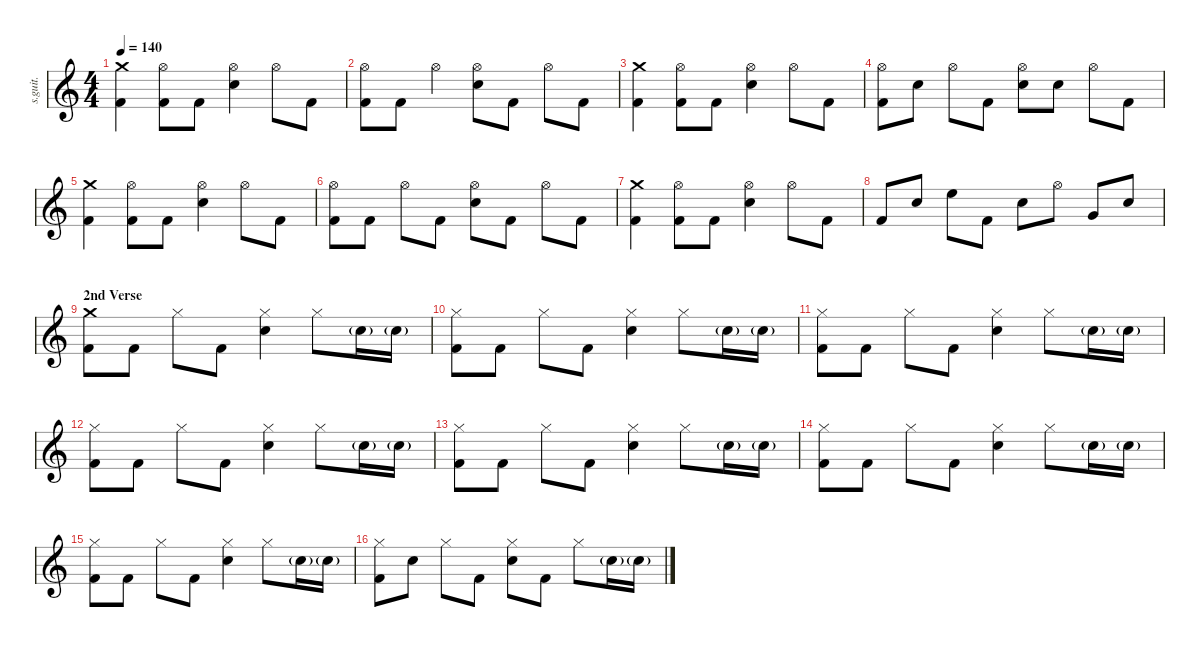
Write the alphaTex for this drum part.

\defaultSystemsLayout 4
\hideDynamics
\bracketExtendMode nobrackets
\track ("Abe Cunningham" "s.guit.") {instrument percussion}
\staff {score}
\articulation defaults
\ts (4 4)
\tempo 140
\clef g2
\ks c
("Crash medium (hit)" "Kick (hit) 2").4{lyrics (0 "") lyrics (1 "") lyrics (2 "") lyrics (3 "") lyrics (4 "") dy fff} ("Hi-Hat (open)" "Kick (hit) 2").8{lyrics (0 "") lyrics (1 "") lyrics (2 "") lyrics (3 "") lyrics (4 "")} "Kick (hit) 2".8{lyrics (0 "") lyrics (1 "") lyrics (2 "") lyrics (3 "") lyrics (4 "")} ("Hi-Hat (open)" "Snare (hit) 2").4{lyrics (0 "") lyrics (1 "") lyrics (2 "") lyrics (3 "") lyrics (4 "")} "Hi-Hat (open)".8{lyrics (0 "") lyrics (1 "") lyrics (2 "") lyrics (3 "") lyrics (4 "")} "Kick (hit) 2".8{lyrics (0 "") lyrics (1 "") lyrics (2 "") lyrics (3 "") lyrics (4 "")} |
("Hi-Hat (open)" "Kick (hit) 2").8{lyrics (0 "") lyrics (1 "") lyrics (2 "") lyrics (3 "") lyrics (4 "")} "Kick (hit) 2".8{lyrics (0 "") lyrics (1 "") lyrics (2 "") lyrics (3 "") lyrics (4 "")} "Hi-Hat (open)".4{lyrics (0 "") lyrics (1 "") lyrics (2 "") lyrics (3 "") lyrics (4 "")} ("Hi-Hat (open)" "Snare (hit) 2").8{lyrics (0 "") lyrics (1 "") lyrics (2 "") lyrics (3 "") lyrics (4 "")} "Kick (hit) 2".8{lyrics (0 "") lyrics (1 "") lyrics (2 "") lyrics (3 "") lyrics (4 "")} "Hi-Hat (open)".8{lyrics (0 "") lyrics (1 "") lyrics (2 "") lyrics (3 "") lyrics (4 "")} "Kick (hit) 2".8{lyrics (0 "") lyrics (1 "") lyrics (2 "") lyrics (3 "") lyrics (4 "")} |
("Crash medium (hit)" "Kick (hit) 2").4{lyrics (0 "") lyrics (1 "") lyrics (2 "") lyrics (3 "") lyrics (4 "")} ("Hi-Hat (open)" "Kick (hit) 2").8{lyrics (0 "") lyrics (1 "") lyrics (2 "") lyrics (3 "") lyrics (4 "")} "Kick (hit) 2".8{lyrics (0 "") lyrics (1 "") lyrics (2 "") lyrics (3 "") lyrics (4 "")} ("Hi-Hat (open)" "Snare (hit) 2").4{lyrics (0 "") lyrics (1 "") lyrics (2 "") lyrics (3 "") lyrics (4 "")} "Hi-Hat (open)".8{lyrics (0 "") lyrics (1 "") lyrics (2 "") lyrics (3 "") lyrics (4 "")} "Kick (hit) 2".8{lyrics (0 "") lyrics (1 "") lyrics (2 "") lyrics (3 "") lyrics (4 "")} |
("Hi-Hat (open)" "Kick (hit) 2").8{lyrics (0 "") lyrics (1 "") lyrics (2 "") lyrics (3 "") lyrics (4 "")} "Snare (hit) 2".8{lyrics (0 "") lyrics (1 "") lyrics (2 "") lyrics (3 "") lyrics (4 "")} "Hi-Hat (open)".8{lyrics (0 "") lyrics (1 "") lyrics (2 "") lyrics (3 "") lyrics (4 "")} "Kick (hit) 2".8{lyrics (0 "") lyrics (1 "") lyrics (2 "") lyrics (3 "") lyrics (4 "")} ("Hi-Hat (open)" "Snare (hit) 2").8{lyrics (0 "") lyrics (1 "") lyrics (2 "") lyrics (3 "") lyrics (4 "")} "Snare (hit) 2".8{lyrics (0 "") lyrics (1 "") lyrics (2 "") lyrics (3 "") lyrics (4 "")} "Hi-Hat (open)".8{lyrics (0 "") lyrics (1 "") lyrics (2 "") lyrics (3 "") lyrics (4 "")} "Kick (hit) 2".8{lyrics (0 "") lyrics (1 "") lyrics (2 "") lyrics (3 "") lyrics (4 "")} |
("Crash medium (hit)" "Kick (hit) 2").4{lyrics (0 "") lyrics (1 "") lyrics (2 "") lyrics (3 "") lyrics (4 "")} ("Hi-Hat (open)" "Kick (hit) 2").8{lyrics (0 "") lyrics (1 "") lyrics (2 "") lyrics (3 "") lyrics (4 "")} "Kick (hit) 2".8{lyrics (0 "") lyrics (1 "") lyrics (2 "") lyrics (3 "") lyrics (4 "")} ("Hi-Hat (open)" "Snare (hit) 2").4{lyrics (0 "") lyrics (1 "") lyrics (2 "") lyrics (3 "") lyrics (4 "")} "Hi-Hat (open)".8{lyrics (0 "") lyrics (1 "") lyrics (2 "") lyrics (3 "") lyrics (4 "")} "Kick (hit) 2".8{lyrics (0 "") lyrics (1 "") lyrics (2 "") lyrics (3 "") lyrics (4 "")} |
("Hi-Hat (open)" "Kick (hit) 2").8{lyrics (0 "") lyrics (1 "") lyrics (2 "") lyrics (3 "") lyrics (4 "")} "Kick (hit) 2".8{lyrics (0 "") lyrics (1 "") lyrics (2 "") lyrics (3 "") lyrics (4 "")} "Hi-Hat (open)".8{lyrics (0 "") lyrics (1 "") lyrics (2 "") lyrics (3 "") lyrics (4 "")} "Kick (hit) 2".8{lyrics (0 "") lyrics (1 "") lyrics (2 "") lyrics (3 "") lyrics (4 "")} ("Hi-Hat (open)" "Snare (hit) 2").8{lyrics (0 "") lyrics (1 "") lyrics (2 "") lyrics (3 "") lyrics (4 "")} "Kick (hit) 2".8{lyrics (0 "") lyrics (1 "") lyrics (2 "") lyrics (3 "") lyrics (4 "")} "Hi-Hat (open)".8{lyrics (0 "") lyrics (1 "") lyrics (2 "") lyrics (3 "") lyrics (4 "")} "Kick (hit) 2".8{lyrics (0 "") lyrics (1 "") lyrics (2 "") lyrics (3 "") lyrics (4 "")} |
("Crash medium (hit)" "Kick (hit) 2").4{lyrics (0 "") lyrics (1 "") lyrics (2 "") lyrics (3 "") lyrics (4 "")} ("Hi-Hat (open)" "Kick (hit) 2").8{lyrics (0 "") lyrics (1 "") lyrics (2 "") lyrics (3 "") lyrics (4 "")} "Kick (hit) 2".8{lyrics (0 "") lyrics (1 "") lyrics (2 "") lyrics (3 "") lyrics (4 "")} ("Hi-Hat (open)" "Snare (hit) 2").4{lyrics (0 "") lyrics (1 "") lyrics (2 "") lyrics (3 "") lyrics (4 "")} "Hi-Hat (open)".8{lyrics (0 "") lyrics (1 "") lyrics (2 "") lyrics (3 "") lyrics (4 "")} "Kick (hit) 2".8{lyrics (0 "") lyrics (1 "") lyrics (2 "") lyrics (3 "") lyrics (4 "")} |
"Kick (hit) 2".8{lyrics (0 "") lyrics (1 "") lyrics (2 "") lyrics (3 "") lyrics (4 "")} "Snare (hit) 2".8{lyrics (0 "") lyrics (1 "") lyrics (2 "") lyrics (3 "") lyrics (4 "")} "High Floor Tom (hit)".8{lyrics (0 "") lyrics (1 "") lyrics (2 "") lyrics (3 "") lyrics (4 "")} "Kick (hit) 2".8{lyrics (0 "") lyrics (1 "") lyrics (2 "") lyrics (3 "") lyrics (4 "")} "Snare (hit) 2".8{lyrics (0 "") lyrics (1 "") lyrics (2 "") lyrics (3 "") lyrics (4 "")} "Hi-Hat (open)".8{lyrics (0 "") lyrics (1 "") lyrics (2 "") lyrics (3 "") lyrics (4 "")} "Very Low Tom (hit)".8{lyrics (0 "") lyrics (1 "") lyrics (2 "") lyrics (3 "") lyrics (4 "")} "Snare (hit) 2".8{lyrics (0 "") lyrics (1 "") lyrics (2 "") lyrics (3 "") lyrics (4 "")} |
\section ("" "2nd Verse")
("Crash medium (hit)" "Kick (hit) 2").8{lyrics (0 "") lyrics (1 "") lyrics (2 "") lyrics (3 "") lyrics (4 "")} "Kick (hit) 2".8{lyrics (0 "") lyrics (1 "") lyrics (2 "") lyrics (3 "") lyrics (4 "")} "Hi-Hat (closed)".8{lyrics (0 "") lyrics (1 "") lyrics (2 "") lyrics (3 "") lyrics (4 "")} "Kick (hit) 2".8{lyrics (0 "") lyrics (1 "") lyrics (2 "") lyrics (3 "") lyrics (4 "")} ("Hi-Hat (closed)" "Snare (hit) 2").4{lyrics (0 "") lyrics (1 "") lyrics (2 "") lyrics (3 "") lyrics (4 "")} "Hi-Hat (closed)".8{lyrics (0 "") lyrics (1 "") lyrics (2 "") lyrics (3 "") lyrics (4 "")} "Snare (hit) 2"{g}.16{lyrics (0 "") lyrics (1 "") lyrics (2 "") lyrics (3 "") lyrics (4 "")} "Snare (hit) 2"{g}.16{lyrics (0 "") lyrics (1 "") lyrics (2 "") lyrics (3 "") lyrics (4 "")} |
("Hi-Hat (closed)" "Kick (hit) 2").8{lyrics (0 "") lyrics (1 "") lyrics (2 "") lyrics (3 "") lyrics (4 "")} "Kick (hit) 2".8{lyrics (0 "") lyrics (1 "") lyrics (2 "") lyrics (3 "") lyrics (4 "")} "Hi-Hat (closed)".8{lyrics (0 "") lyrics (1 "") lyrics (2 "") lyrics (3 "") lyrics (4 "")} "Kick (hit) 2".8{lyrics (0 "") lyrics (1 "") lyrics (2 "") lyrics (3 "") lyrics (4 "")} ("Hi-Hat (closed)" "Snare (hit) 2").4{lyrics (0 "") lyrics (1 "") lyrics (2 "") lyrics (3 "") lyrics (4 "")} "Hi-Hat (closed)".8{lyrics (0 "") lyrics (1 "") lyrics (2 "") lyrics (3 "") lyrics (4 "")} "Snare (hit) 2"{g}.16{lyrics (0 "") lyrics (1 "") lyrics (2 "") lyrics (3 "") lyrics (4 "")} "Snare (hit) 2"{g}.16{lyrics (0 "") lyrics (1 "") lyrics (2 "") lyrics (3 "") lyrics (4 "")} |
("Hi-Hat (closed)" "Kick (hit) 2").8{lyrics (0 "") lyrics (1 "") lyrics (2 "") lyrics (3 "") lyrics (4 "")} "Kick (hit) 2".8{lyrics (0 "") lyrics (1 "") lyrics (2 "") lyrics (3 "") lyrics (4 "")} "Hi-Hat (closed)".8{lyrics (0 "") lyrics (1 "") lyrics (2 "") lyrics (3 "") lyrics (4 "")} "Kick (hit) 2".8{lyrics (0 "") lyrics (1 "") lyrics (2 "") lyrics (3 "") lyrics (4 "")} ("Hi-Hat (closed)" "Snare (hit) 2").4{lyrics (0 "") lyrics (1 "") lyrics (2 "") lyrics (3 "") lyrics (4 "")} "Hi-Hat (closed)".8{lyrics (0 "") lyrics (1 "") lyrics (2 "") lyrics (3 "") lyrics (4 "")} "Snare (hit) 2"{g}.16{lyrics (0 "") lyrics (1 "") lyrics (2 "") lyrics (3 "") lyrics (4 "")} "Snare (hit) 2"{g}.16{lyrics (0 "") lyrics (1 "") lyrics (2 "") lyrics (3 "") lyrics (4 "")} |
("Hi-Hat (closed)" "Kick (hit) 2").8{lyrics (0 "") lyrics (1 "") lyrics (2 "") lyrics (3 "") lyrics (4 "")} "Kick (hit) 2".8{lyrics (0 "") lyrics (1 "") lyrics (2 "") lyrics (3 "") lyrics (4 "")} "Hi-Hat (closed)".8{lyrics (0 "") lyrics (1 "") lyrics (2 "") lyrics (3 "") lyrics (4 "")} "Kick (hit) 2".8{lyrics (0 "") lyrics (1 "") lyrics (2 "") lyrics (3 "") lyrics (4 "")} ("Hi-Hat (closed)" "Snare (hit) 2").4{lyrics (0 "") lyrics (1 "") lyrics (2 "") lyrics (3 "") lyrics (4 "")} "Hi-Hat (closed)".8{lyrics (0 "") lyrics (1 "") lyrics (2 "") lyrics (3 "") lyrics (4 "")} "Snare (hit) 2"{g}.16{lyrics (0 "") lyrics (1 "") lyrics (2 "") lyrics (3 "") lyrics (4 "")} "Snare (hit) 2"{g}.16{lyrics (0 "") lyrics (1 "") lyrics (2 "") lyrics (3 "") lyrics (4 "")} |
("Hi-Hat (closed)" "Kick (hit) 2").8{lyrics (0 "") lyrics (1 "") lyrics (2 "") lyrics (3 "") lyrics (4 "")} "Kick (hit) 2".8{lyrics (0 "") lyrics (1 "") lyrics (2 "") lyrics (3 "") lyrics (4 "")} "Hi-Hat (closed)".8{lyrics (0 "") lyrics (1 "") lyrics (2 "") lyrics (3 "") lyrics (4 "")} "Kick (hit) 2".8{lyrics (0 "") lyrics (1 "") lyrics (2 "") lyrics (3 "") lyrics (4 "")} ("Hi-Hat (closed)" "Snare (hit) 2").4{lyrics (0 "") lyrics (1 "") lyrics (2 "") lyrics (3 "") lyrics (4 "")} "Hi-Hat (closed)".8{lyrics (0 "") lyrics (1 "") lyrics (2 "") lyrics (3 "") lyrics (4 "")} "Snare (hit) 2"{g}.16{lyrics (0 "") lyrics (1 "") lyrics (2 "") lyrics (3 "") lyrics (4 "")} "Snare (hit) 2"{g}.16{lyrics (0 "") lyrics (1 "") lyrics (2 "") lyrics (3 "") lyrics (4 "")} |
("Hi-Hat (closed)" "Kick (hit) 2").8{lyrics (0 "") lyrics (1 "") lyrics (2 "") lyrics (3 "") lyrics (4 "")} "Kick (hit) 2".8{lyrics (0 "") lyrics (1 "") lyrics (2 "") lyrics (3 "") lyrics (4 "")} "Hi-Hat (closed)".8{lyrics (0 "") lyrics (1 "") lyrics (2 "") lyrics (3 "") lyrics (4 "")} "Kick (hit) 2".8{lyrics (0 "") lyrics (1 "") lyrics (2 "") lyrics (3 "") lyrics (4 "")} ("Hi-Hat (closed)" "Snare (hit) 2").4{lyrics (0 "") lyrics (1 "") lyrics (2 "") lyrics (3 "") lyrics (4 "")} "Hi-Hat (closed)".8{lyrics (0 "") lyrics (1 "") lyrics (2 "") lyrics (3 "") lyrics (4 "")} "Snare (hit) 2"{g}.16{lyrics (0 "") lyrics (1 "") lyrics (2 "") lyrics (3 "") lyrics (4 "")} "Snare (hit) 2"{g}.16{lyrics (0 "") lyrics (1 "") lyrics (2 "") lyrics (3 "") lyrics (4 "")} |
("Hi-Hat (closed)" "Kick (hit) 2").8{lyrics (0 "") lyrics (1 "") lyrics (2 "") lyrics (3 "") lyrics (4 "")} "Kick (hit) 2".8{lyrics (0 "") lyrics (1 "") lyrics (2 "") lyrics (3 "") lyrics (4 "")} "Hi-Hat (closed)".8{lyrics (0 "") lyrics (1 "") lyrics (2 "") lyrics (3 "") lyrics (4 "")} "Kick (hit) 2".8{lyrics (0 "") lyrics (1 "") lyrics (2 "") lyrics (3 "") lyrics (4 "")} ("Hi-Hat (closed)" "Snare (hit) 2").4{lyrics (0 "") lyrics (1 "") lyrics (2 "") lyrics (3 "") lyrics (4 "")} "Hi-Hat (closed)".8{lyrics (0 "") lyrics (1 "") lyrics (2 "") lyrics (3 "") lyrics (4 "")} "Snare (hit) 2"{g}.16{lyrics (0 "") lyrics (1 "") lyrics (2 "") lyrics (3 "") lyrics (4 "")} "Snare (hit) 2"{g}.16{lyrics (0 "") lyrics (1 "") lyrics (2 "") lyrics (3 "") lyrics (4 "")} |
("Hi-Hat (closed)" "Kick (hit) 2").8{lyrics (0 "") lyrics (1 "") lyrics (2 "") lyrics (3 "") lyrics (4 "")} "Snare (hit) 2".8{lyrics (0 "") lyrics (1 "") lyrics (2 "") lyrics (3 "") lyrics (4 "")} "Hi-Hat (closed)".8{lyrics (0 "") lyrics (1 "") lyrics (2 "") lyrics (3 "") lyrics (4 "")} "Kick (hit) 2".8{lyrics (0 "") lyrics (1 "") lyrics (2 "") lyrics (3 "") lyrics (4 "")} ("Hi-Hat (closed)" "Snare (hit) 2").8{lyrics (0 "") lyrics (1 "") lyrics (2 "") lyrics (3 "") lyrics (4 "")} "Kick (hit) 2".8{lyrics (0 "") lyrics (1 "") lyrics (2 "") lyrics (3 "") lyrics (4 "")} "Hi-Hat (closed)".8{lyrics (0 "") lyrics (1 "") lyrics (2 "") lyrics (3 "") lyrics (4 "")} "Snare (hit) 2"{g}.16{lyrics (0 "") lyrics (1 "") lyrics (2 "") lyrics (3 "") lyrics (4 "")} "Snare (hit) 2"{g}.16{lyrics (0 "") lyrics (1 "") lyrics (2 "") lyrics (3 "") lyrics (4 "")}
